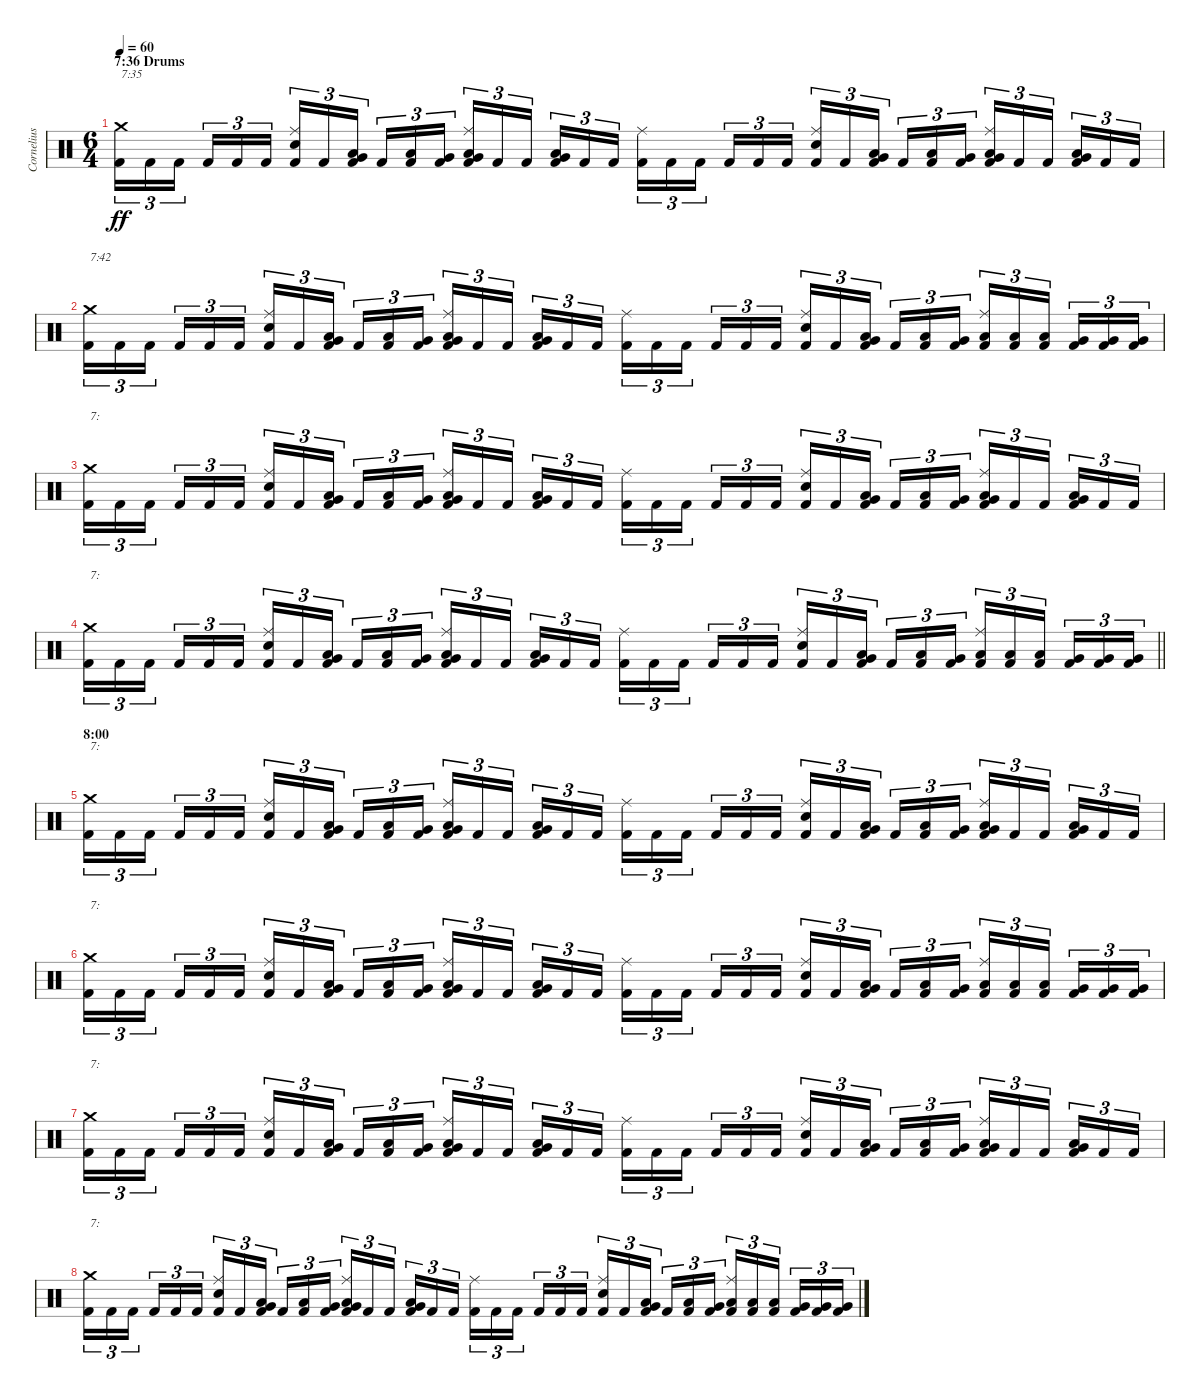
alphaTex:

\track ("Cornelius Althammer (Drums)" "Cornelius ") {instrument percussion}
\staff {score}
\articulation defaults
\ts (6 4)
\section ("" "7:36 Drums ")
\tempo 60
\clef neutral
\ks c
("Crash medium (hit)" "Kick (hit) 2").16{tu (3 2) txt "7:35" dy ff} "Kick (hit) 2".16{tu (3 2)} "Kick (hit) 2".16{tu (3 2) beam splitsecondary} "Kick (hit) 2".16{tu (3 2)} "Kick (hit) 2".16{tu (3 2)} "Kick (hit) 2".16{tu (3 2) beam splitsecondary} ("Ride (middle)" "Electric Snare (hit)" "Kick (hit) 2").16{tu (3 2)} "Kick (hit) 2".16{tu (3 2)} ("Low Tom (hit)" "Very Low Tom (hit)" "Kick (hit) 2").16{tu (3 2) beam splitsecondary} "Kick (hit) 2".16{tu (3 2)} ("Low Tom (hit)" "Kick (hit) 2").16{tu (3 2)} ("Very Low Tom (hit)" "Kick (hit) 2").16{tu (3 2) beam splitsecondary} ("Ride (middle)" "Very Low Tom (hit)" "Low Floor Tom (hit)" "Kick (hit) 2").16{tu (3 2)} "Kick (hit) 2".16{tu (3 2)} "Kick (hit) 2".16{tu (3 2) beam splitsecondary} ("Very Low Tom (hit)" "Low Floor Tom (hit)" "Kick (hit) 2").16{tu (3 2)} "Kick (hit) 2".16{tu (3 2)} "Kick (hit) 2".16{tu (3 2)} ("Ride (middle)" "Kick (hit) 2").16{tu (3 2)} "Kick (hit) 2".16{tu (3 2)} "Kick (hit) 2".16{tu (3 2) beam splitsecondary} "Kick (hit) 2".16{tu (3 2)} "Kick (hit) 2".16{tu (3 2)} "Kick (hit) 2".16{tu (3 2) beam splitsecondary} ("Ride (middle)" "Electric Snare (hit)" "Kick (hit) 2").16{tu (3 2)} "Kick (hit) 2".16{tu (3 2)} ("Low Tom (hit)" "Very Low Tom (hit)" "Kick (hit) 2").16{tu (3 2) beam splitsecondary} "Kick (hit) 2".16{tu (3 2)} ("Low Tom (hit)" "Kick (hit) 2").16{tu (3 2)} ("Very Low Tom (hit)" "Kick (hit) 2").16{tu (3 2) beam splitsecondary} ("Ride (middle)" "Very Low Tom (hit)" "Low Floor Tom (hit)" "Kick (hit) 2").16{tu (3 2)} "Kick (hit) 2".16{tu (3 2)} "Kick (hit) 2".16{tu (3 2) beam splitsecondary} ("Very Low Tom (hit)" "Low Floor Tom (hit)" "Kick (hit) 2").16{tu (3 2)} "Kick (hit) 2".16{tu (3 2)} "Kick (hit) 2".16{tu (3 2)} |
("Crash medium (hit)" "Kick (hit) 2").16{tu (3 2) txt "7:42"} "Kick (hit) 2".16{tu (3 2)} "Kick (hit) 2".16{tu (3 2) beam splitsecondary} "Kick (hit) 2".16{tu (3 2)} "Kick (hit) 2".16{tu (3 2)} "Kick (hit) 2".16{tu (3 2) beam splitsecondary} ("Ride (middle)" "Electric Snare (hit)" "Kick (hit) 2").16{tu (3 2)} "Kick (hit) 2".16{tu (3 2)} ("Low Tom (hit)" "Very Low Tom (hit)" "Kick (hit) 2").16{tu (3 2) beam splitsecondary} "Kick (hit) 2".16{tu (3 2)} ("Low Tom (hit)" "Kick (hit) 2").16{tu (3 2)} ("Very Low Tom (hit)" "Kick (hit) 2").16{tu (3 2) beam splitsecondary} ("Ride (middle)" "Very Low Tom (hit)" "Low Floor Tom (hit)" "Kick (hit) 2").16{tu (3 2)} "Kick (hit) 2".16{tu (3 2)} "Kick (hit) 2".16{tu (3 2) beam splitsecondary} ("Very Low Tom (hit)" "Low Floor Tom (hit)" "Kick (hit) 2").16{tu (3 2)} "Kick (hit) 2".16{tu (3 2)} "Kick (hit) 2".16{tu (3 2)} ("Ride (middle)" "Kick (hit) 2").16{tu (3 2)} "Kick (hit) 2".16{tu (3 2)} "Kick (hit) 2".16{tu (3 2) beam splitsecondary} "Kick (hit) 2".16{tu (3 2)} "Kick (hit) 2".16{tu (3 2)} "Kick (hit) 2".16{tu (3 2) beam splitsecondary} ("Ride (middle)" "Electric Snare (hit)" "Kick (hit) 2").16{tu (3 2)} "Kick (hit) 2".16{tu (3 2)} ("Low Tom (hit)" "Very Low Tom (hit)" "Kick (hit) 2").16{tu (3 2) beam splitsecondary} "Kick (hit) 2".16{tu (3 2)} ("Low Tom (hit)" "Kick (hit) 2").16{tu (3 2)} ("Very Low Tom (hit)" "Kick (hit) 2").16{tu (3 2) beam splitsecondary} ("Ride (middle)" "Low Tom (hit)" "Kick (hit) 2").16{tu (3 2)} ("Low Tom (hit)" "Kick (hit) 2").16{tu (3 2)} ("Low Tom (hit)" "Kick (hit) 2").16{tu (3 2) beam splitsecondary} ("Very Low Tom (hit)" "Kick (hit) 2").16{tu (3 2)} ("Very Low Tom (hit)" "Kick (hit) 2").16{tu (3 2)} ("Very Low Tom (hit)" "Kick (hit) 2").16{tu (3 2)} |
("Crash medium (hit)" "Kick (hit) 2").16{tu (3 2) txt "7:"} "Kick (hit) 2".16{tu (3 2)} "Kick (hit) 2".16{tu (3 2) beam splitsecondary} "Kick (hit) 2".16{tu (3 2)} "Kick (hit) 2".16{tu (3 2)} "Kick (hit) 2".16{tu (3 2) beam splitsecondary} ("Ride (middle)" "Electric Snare (hit)" "Kick (hit) 2").16{tu (3 2)} "Kick (hit) 2".16{tu (3 2)} ("Low Tom (hit)" "Very Low Tom (hit)" "Kick (hit) 2").16{tu (3 2) beam splitsecondary} "Kick (hit) 2".16{tu (3 2)} ("Low Tom (hit)" "Kick (hit) 2").16{tu (3 2)} ("Very Low Tom (hit)" "Kick (hit) 2").16{tu (3 2) beam splitsecondary} ("Ride (middle)" "Very Low Tom (hit)" "Low Floor Tom (hit)" "Kick (hit) 2").16{tu (3 2)} "Kick (hit) 2".16{tu (3 2)} "Kick (hit) 2".16{tu (3 2) beam splitsecondary} ("Very Low Tom (hit)" "Low Floor Tom (hit)" "Kick (hit) 2").16{tu (3 2)} "Kick (hit) 2".16{tu (3 2)} "Kick (hit) 2".16{tu (3 2)} ("Ride (middle)" "Kick (hit) 2").16{tu (3 2)} "Kick (hit) 2".16{tu (3 2)} "Kick (hit) 2".16{tu (3 2) beam splitsecondary} "Kick (hit) 2".16{tu (3 2)} "Kick (hit) 2".16{tu (3 2)} "Kick (hit) 2".16{tu (3 2) beam splitsecondary} ("Ride (middle)" "Electric Snare (hit)" "Kick (hit) 2").16{tu (3 2)} "Kick (hit) 2".16{tu (3 2)} ("Low Tom (hit)" "Very Low Tom (hit)" "Kick (hit) 2").16{tu (3 2) beam splitsecondary} "Kick (hit) 2".16{tu (3 2)} ("Low Tom (hit)" "Kick (hit) 2").16{tu (3 2)} ("Very Low Tom (hit)" "Kick (hit) 2").16{tu (3 2) beam splitsecondary} ("Ride (middle)" "Very Low Tom (hit)" "Low Floor Tom (hit)" "Kick (hit) 2").16{tu (3 2)} "Kick (hit) 2".16{tu (3 2)} "Kick (hit) 2".16{tu (3 2) beam splitsecondary} ("Very Low Tom (hit)" "Low Floor Tom (hit)" "Kick (hit) 2").16{tu (3 2)} "Kick (hit) 2".16{tu (3 2)} "Kick (hit) 2".16{tu (3 2)} |
\barLineRight lightlight
("Crash medium (hit)" "Kick (hit) 2").16{tu (3 2) txt "7:"} "Kick (hit) 2".16{tu (3 2)} "Kick (hit) 2".16{tu (3 2) beam splitsecondary} "Kick (hit) 2".16{tu (3 2)} "Kick (hit) 2".16{tu (3 2)} "Kick (hit) 2".16{tu (3 2) beam splitsecondary} ("Ride (middle)" "Electric Snare (hit)" "Kick (hit) 2").16{tu (3 2)} "Kick (hit) 2".16{tu (3 2)} ("Low Tom (hit)" "Very Low Tom (hit)" "Kick (hit) 2").16{tu (3 2) beam splitsecondary} "Kick (hit) 2".16{tu (3 2)} ("Low Tom (hit)" "Kick (hit) 2").16{tu (3 2)} ("Very Low Tom (hit)" "Kick (hit) 2").16{tu (3 2) beam splitsecondary} ("Ride (middle)" "Very Low Tom (hit)" "Low Floor Tom (hit)" "Kick (hit) 2").16{tu (3 2)} "Kick (hit) 2".16{tu (3 2)} "Kick (hit) 2".16{tu (3 2) beam splitsecondary} ("Very Low Tom (hit)" "Low Floor Tom (hit)" "Kick (hit) 2").16{tu (3 2)} "Kick (hit) 2".16{tu (3 2)} "Kick (hit) 2".16{tu (3 2)} ("Ride (middle)" "Kick (hit) 2").16{tu (3 2)} "Kick (hit) 2".16{tu (3 2)} "Kick (hit) 2".16{tu (3 2) beam splitsecondary} "Kick (hit) 2".16{tu (3 2)} "Kick (hit) 2".16{tu (3 2)} "Kick (hit) 2".16{tu (3 2) beam splitsecondary} ("Ride (middle)" "Electric Snare (hit)" "Kick (hit) 2").16{tu (3 2)} "Kick (hit) 2".16{tu (3 2)} ("Low Tom (hit)" "Very Low Tom (hit)" "Kick (hit) 2").16{tu (3 2) beam splitsecondary} "Kick (hit) 2".16{tu (3 2)} ("Low Tom (hit)" "Kick (hit) 2").16{tu (3 2)} ("Very Low Tom (hit)" "Kick (hit) 2").16{tu (3 2) beam splitsecondary} ("Ride (middle)" "Low Tom (hit)" "Kick (hit) 2").16{tu (3 2)} ("Low Tom (hit)" "Kick (hit) 2").16{tu (3 2)} ("Low Tom (hit)" "Kick (hit) 2").16{tu (3 2) beam splitsecondary} ("Very Low Tom (hit)" "Kick (hit) 2").16{tu (3 2)} ("Very Low Tom (hit)" "Kick (hit) 2").16{tu (3 2)} ("Very Low Tom (hit)" "Kick (hit) 2").16{tu (3 2)} |
\section ("" "8:00")
("Crash medium (hit)" "Kick (hit) 2").16{tu (3 2) txt "7:"} "Kick (hit) 2".16{tu (3 2)} "Kick (hit) 2".16{tu (3 2) beam splitsecondary} "Kick (hit) 2".16{tu (3 2)} "Kick (hit) 2".16{tu (3 2)} "Kick (hit) 2".16{tu (3 2) beam splitsecondary} ("Ride (middle)" "Electric Snare (hit)" "Kick (hit) 2").16{tu (3 2)} "Kick (hit) 2".16{tu (3 2)} ("Low Tom (hit)" "Very Low Tom (hit)" "Kick (hit) 2").16{tu (3 2) beam splitsecondary} "Kick (hit) 2".16{tu (3 2)} ("Low Tom (hit)" "Kick (hit) 2").16{tu (3 2)} ("Very Low Tom (hit)" "Kick (hit) 2").16{tu (3 2) beam splitsecondary} ("Ride (middle)" "Very Low Tom (hit)" "Low Floor Tom (hit)" "Kick (hit) 2").16{tu (3 2)} "Kick (hit) 2".16{tu (3 2)} "Kick (hit) 2".16{tu (3 2) beam splitsecondary} ("Very Low Tom (hit)" "Low Floor Tom (hit)" "Kick (hit) 2").16{tu (3 2)} "Kick (hit) 2".16{tu (3 2)} "Kick (hit) 2".16{tu (3 2)} ("Ride (middle)" "Kick (hit) 2").16{tu (3 2)} "Kick (hit) 2".16{tu (3 2)} "Kick (hit) 2".16{tu (3 2) beam splitsecondary} "Kick (hit) 2".16{tu (3 2)} "Kick (hit) 2".16{tu (3 2)} "Kick (hit) 2".16{tu (3 2) beam splitsecondary} ("Ride (middle)" "Electric Snare (hit)" "Kick (hit) 2").16{tu (3 2)} "Kick (hit) 2".16{tu (3 2)} ("Low Tom (hit)" "Very Low Tom (hit)" "Kick (hit) 2").16{tu (3 2) beam splitsecondary} "Kick (hit) 2".16{tu (3 2)} ("Low Tom (hit)" "Kick (hit) 2").16{tu (3 2)} ("Very Low Tom (hit)" "Kick (hit) 2").16{tu (3 2) beam splitsecondary} ("Ride (middle)" "Very Low Tom (hit)" "Low Floor Tom (hit)" "Kick (hit) 2").16{tu (3 2)} "Kick (hit) 2".16{tu (3 2)} "Kick (hit) 2".16{tu (3 2) beam splitsecondary} ("Very Low Tom (hit)" "Low Floor Tom (hit)" "Kick (hit) 2").16{tu (3 2)} "Kick (hit) 2".16{tu (3 2)} "Kick (hit) 2".16{tu (3 2)} |
("Crash medium (hit)" "Kick (hit) 2").16{tu (3 2) txt "7:"} "Kick (hit) 2".16{tu (3 2)} "Kick (hit) 2".16{tu (3 2) beam splitsecondary} "Kick (hit) 2".16{tu (3 2)} "Kick (hit) 2".16{tu (3 2)} "Kick (hit) 2".16{tu (3 2) beam splitsecondary} ("Ride (middle)" "Electric Snare (hit)" "Kick (hit) 2").16{tu (3 2)} "Kick (hit) 2".16{tu (3 2)} ("Low Tom (hit)" "Very Low Tom (hit)" "Kick (hit) 2").16{tu (3 2) beam splitsecondary} "Kick (hit) 2".16{tu (3 2)} ("Low Tom (hit)" "Kick (hit) 2").16{tu (3 2)} ("Very Low Tom (hit)" "Kick (hit) 2").16{tu (3 2) beam splitsecondary} ("Ride (middle)" "Very Low Tom (hit)" "Low Floor Tom (hit)" "Kick (hit) 2").16{tu (3 2)} "Kick (hit) 2".16{tu (3 2)} "Kick (hit) 2".16{tu (3 2) beam splitsecondary} ("Very Low Tom (hit)" "Low Floor Tom (hit)" "Kick (hit) 2").16{tu (3 2)} "Kick (hit) 2".16{tu (3 2)} "Kick (hit) 2".16{tu (3 2)} ("Ride (middle)" "Kick (hit) 2").16{tu (3 2)} "Kick (hit) 2".16{tu (3 2)} "Kick (hit) 2".16{tu (3 2) beam splitsecondary} "Kick (hit) 2".16{tu (3 2)} "Kick (hit) 2".16{tu (3 2)} "Kick (hit) 2".16{tu (3 2) beam splitsecondary} ("Ride (middle)" "Electric Snare (hit)" "Kick (hit) 2").16{tu (3 2)} "Kick (hit) 2".16{tu (3 2)} ("Low Tom (hit)" "Very Low Tom (hit)" "Kick (hit) 2").16{tu (3 2) beam splitsecondary} "Kick (hit) 2".16{tu (3 2)} ("Low Tom (hit)" "Kick (hit) 2").16{tu (3 2)} ("Very Low Tom (hit)" "Kick (hit) 2").16{tu (3 2) beam splitsecondary} ("Ride (middle)" "Low Tom (hit)" "Kick (hit) 2").16{tu (3 2)} ("Low Tom (hit)" "Kick (hit) 2").16{tu (3 2)} ("Low Tom (hit)" "Kick (hit) 2").16{tu (3 2) beam splitsecondary} ("Very Low Tom (hit)" "Kick (hit) 2").16{tu (3 2)} ("Very Low Tom (hit)" "Kick (hit) 2").16{tu (3 2)} ("Very Low Tom (hit)" "Kick (hit) 2").16{tu (3 2)} |
("Crash medium (hit)" "Kick (hit) 2").16{tu (3 2) txt "7:"} "Kick (hit) 2".16{tu (3 2)} "Kick (hit) 2".16{tu (3 2) beam splitsecondary} "Kick (hit) 2".16{tu (3 2)} "Kick (hit) 2".16{tu (3 2)} "Kick (hit) 2".16{tu (3 2) beam splitsecondary} ("Ride (middle)" "Electric Snare (hit)" "Kick (hit) 2").16{tu (3 2)} "Kick (hit) 2".16{tu (3 2)} ("Low Tom (hit)" "Very Low Tom (hit)" "Kick (hit) 2").16{tu (3 2) beam splitsecondary} "Kick (hit) 2".16{tu (3 2)} ("Low Tom (hit)" "Kick (hit) 2").16{tu (3 2)} ("Very Low Tom (hit)" "Kick (hit) 2").16{tu (3 2) beam splitsecondary} ("Ride (middle)" "Very Low Tom (hit)" "Low Floor Tom (hit)" "Kick (hit) 2").16{tu (3 2)} "Kick (hit) 2".16{tu (3 2)} "Kick (hit) 2".16{tu (3 2) beam splitsecondary} ("Very Low Tom (hit)" "Low Floor Tom (hit)" "Kick (hit) 2").16{tu (3 2)} "Kick (hit) 2".16{tu (3 2)} "Kick (hit) 2".16{tu (3 2)} ("Ride (middle)" "Kick (hit) 2").16{tu (3 2)} "Kick (hit) 2".16{tu (3 2)} "Kick (hit) 2".16{tu (3 2) beam splitsecondary} "Kick (hit) 2".16{tu (3 2)} "Kick (hit) 2".16{tu (3 2)} "Kick (hit) 2".16{tu (3 2) beam splitsecondary} ("Ride (middle)" "Electric Snare (hit)" "Kick (hit) 2").16{tu (3 2)} "Kick (hit) 2".16{tu (3 2)} ("Low Tom (hit)" "Very Low Tom (hit)" "Kick (hit) 2").16{tu (3 2) beam splitsecondary} "Kick (hit) 2".16{tu (3 2)} ("Low Tom (hit)" "Kick (hit) 2").16{tu (3 2)} ("Very Low Tom (hit)" "Kick (hit) 2").16{tu (3 2) beam splitsecondary} ("Ride (middle)" "Very Low Tom (hit)" "Low Floor Tom (hit)" "Kick (hit) 2").16{tu (3 2)} "Kick (hit) 2".16{tu (3 2)} "Kick (hit) 2".16{tu (3 2) beam splitsecondary} ("Very Low Tom (hit)" "Low Floor Tom (hit)" "Kick (hit) 2").16{tu (3 2)} "Kick (hit) 2".16{tu (3 2)} "Kick (hit) 2".16{tu (3 2)} |
("Crash medium (hit)" "Kick (hit) 2").16{tu (3 2) txt "7:"} "Kick (hit) 2".16{tu (3 2)} "Kick (hit) 2".16{tu (3 2) beam splitsecondary} "Kick (hit) 2".16{tu (3 2)} "Kick (hit) 2".16{tu (3 2)} "Kick (hit) 2".16{tu (3 2) beam splitsecondary} ("Ride (middle)" "Electric Snare (hit)" "Kick (hit) 2").16{tu (3 2)} "Kick (hit) 2".16{tu (3 2)} ("Low Tom (hit)" "Very Low Tom (hit)" "Kick (hit) 2").16{tu (3 2) beam splitsecondary} "Kick (hit) 2".16{tu (3 2)} ("Low Tom (hit)" "Kick (hit) 2").16{tu (3 2)} ("Very Low Tom (hit)" "Kick (hit) 2").16{tu (3 2) beam splitsecondary} ("Ride (middle)" "Very Low Tom (hit)" "Low Floor Tom (hit)" "Kick (hit) 2").16{tu (3 2)} "Kick (hit) 2".16{tu (3 2)} "Kick (hit) 2".16{tu (3 2) beam splitsecondary} ("Very Low Tom (hit)" "Low Floor Tom (hit)" "Kick (hit) 2").16{tu (3 2)} "Kick (hit) 2".16{tu (3 2)} "Kick (hit) 2".16{tu (3 2)} ("Ride (middle)" "Kick (hit) 2").16{tu (3 2)} "Kick (hit) 2".16{tu (3 2)} "Kick (hit) 2".16{tu (3 2) beam splitsecondary} "Kick (hit) 2".16{tu (3 2)} "Kick (hit) 2".16{tu (3 2)} "Kick (hit) 2".16{tu (3 2) beam splitsecondary} ("Ride (middle)" "Electric Snare (hit)" "Kick (hit) 2").16{tu (3 2)} "Kick (hit) 2".16{tu (3 2)} ("Low Tom (hit)" "Very Low Tom (hit)" "Kick (hit) 2").16{tu (3 2) beam splitsecondary} "Kick (hit) 2".16{tu (3 2)} ("Low Tom (hit)" "Kick (hit) 2").16{tu (3 2)} ("Very Low Tom (hit)" "Kick (hit) 2").16{tu (3 2) beam splitsecondary} ("Ride (middle)" "Low Tom (hit)" "Kick (hit) 2").16{tu (3 2)} ("Low Tom (hit)" "Kick (hit) 2").16{tu (3 2)} ("Low Tom (hit)" "Kick (hit) 2").16{tu (3 2) beam splitsecondary} ("Very Low Tom (hit)" "Kick (hit) 2").16{tu (3 2)} ("Very Low Tom (hit)" "Kick (hit) 2").16{tu (3 2)} ("Very Low Tom (hit)" "Kick (hit) 2").16{tu (3 2)}
